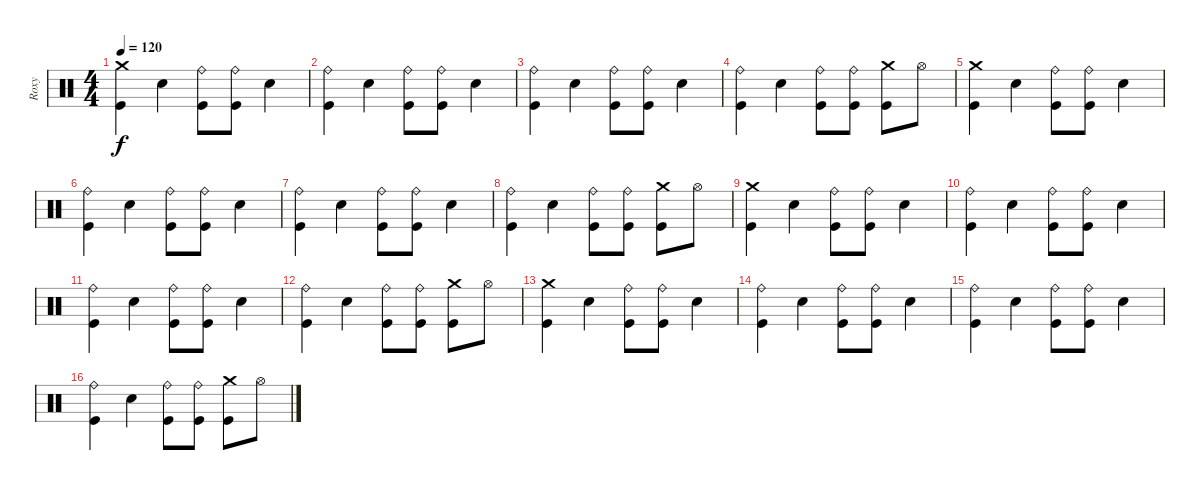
\track ("Roxy" "Roxy") {instrument percussion}
\staff {score}
\articulation defaults
\ts (4 4)
\tempo 120
\clef neutral
\ks c
("Crash medium (hit)" "Kick (hit)").4{dy f} "Electric Snare (hit)".4 ("Ride (bell)" "Kick (hit)").8 ("Ride (bell)" "Kick (hit)").8 "Electric Snare (hit)".4 |
("Ride (bell)" "Kick (hit)").4 "Electric Snare (hit)".4 ("Ride (bell)" "Kick (hit)").8 ("Ride (bell)" "Kick (hit)").8 "Electric Snare (hit)".4 |
("Ride (bell)" "Kick (hit)").4 "Electric Snare (hit)".4 ("Ride (bell)" "Kick (hit)").8 ("Ride (bell)" "Kick (hit)").8 "Electric Snare (hit)".4 |
("Ride (bell)" "Kick (hit)").4 "Electric Snare (hit)".4 ("Ride (bell)" "Kick (hit)").8 ("Ride (bell)" "Kick (hit)").8 ("Crash medium (hit)" "Kick (hit)").8 "Hi-Hat (open)".8 |
("Crash medium (hit)" "Kick (hit)").4 "Electric Snare (hit)".4 ("Ride (bell)" "Kick (hit)").8 ("Ride (bell)" "Kick (hit)").8 "Electric Snare (hit)".4 |
("Ride (bell)" "Kick (hit)").4 "Electric Snare (hit)".4 ("Ride (bell)" "Kick (hit)").8 ("Ride (bell)" "Kick (hit)").8 "Electric Snare (hit)".4 |
("Ride (bell)" "Kick (hit)").4 "Electric Snare (hit)".4 ("Ride (bell)" "Kick (hit)").8 ("Ride (bell)" "Kick (hit)").8 "Electric Snare (hit)".4 |
("Ride (bell)" "Kick (hit)").4 "Electric Snare (hit)".4 ("Ride (bell)" "Kick (hit)").8 ("Ride (bell)" "Kick (hit)").8 ("Crash medium (hit)" "Kick (hit)").8 "Hi-Hat (open)".8 |
("Crash medium (hit)" "Kick (hit)").4 "Electric Snare (hit)".4 ("Ride (bell)" "Kick (hit)").8 ("Ride (bell)" "Kick (hit)").8 "Electric Snare (hit)".4 |
("Ride (bell)" "Kick (hit)").4 "Electric Snare (hit)".4 ("Ride (bell)" "Kick (hit)").8 ("Ride (bell)" "Kick (hit)").8 "Electric Snare (hit)".4 |
("Ride (bell)" "Kick (hit)").4 "Electric Snare (hit)".4 ("Ride (bell)" "Kick (hit)").8 ("Ride (bell)" "Kick (hit)").8 "Electric Snare (hit)".4 |
("Ride (bell)" "Kick (hit)").4 "Electric Snare (hit)".4 ("Ride (bell)" "Kick (hit)").8 ("Ride (bell)" "Kick (hit)").8 ("Crash medium (hit)" "Kick (hit)").8 "Hi-Hat (open)".8 |
("Crash medium (hit)" "Kick (hit)").4{volume 0} "Electric Snare (hit)".4 ("Ride (bell)" "Kick (hit)").8 ("Ride (bell)" "Kick (hit)").8 "Electric Snare (hit)".4 |
("Ride (bell)" "Kick (hit)").4 "Electric Snare (hit)".4 ("Ride (bell)" "Kick (hit)").8 ("Ride (bell)" "Kick (hit)").8 "Electric Snare (hit)".4 |
("Ride (bell)" "Kick (hit)").4 "Electric Snare (hit)".4 ("Ride (bell)" "Kick (hit)").8 ("Ride (bell)" "Kick (hit)").8 "Electric Snare (hit)".4 |
("Ride (bell)" "Kick (hit)").4 "Electric Snare (hit)".4 ("Ride (bell)" "Kick (hit)").8 ("Ride (bell)" "Kick (hit)").8 ("Crash medium (hit)" "Kick (hit)").8 "Hi-Hat (open)".8
